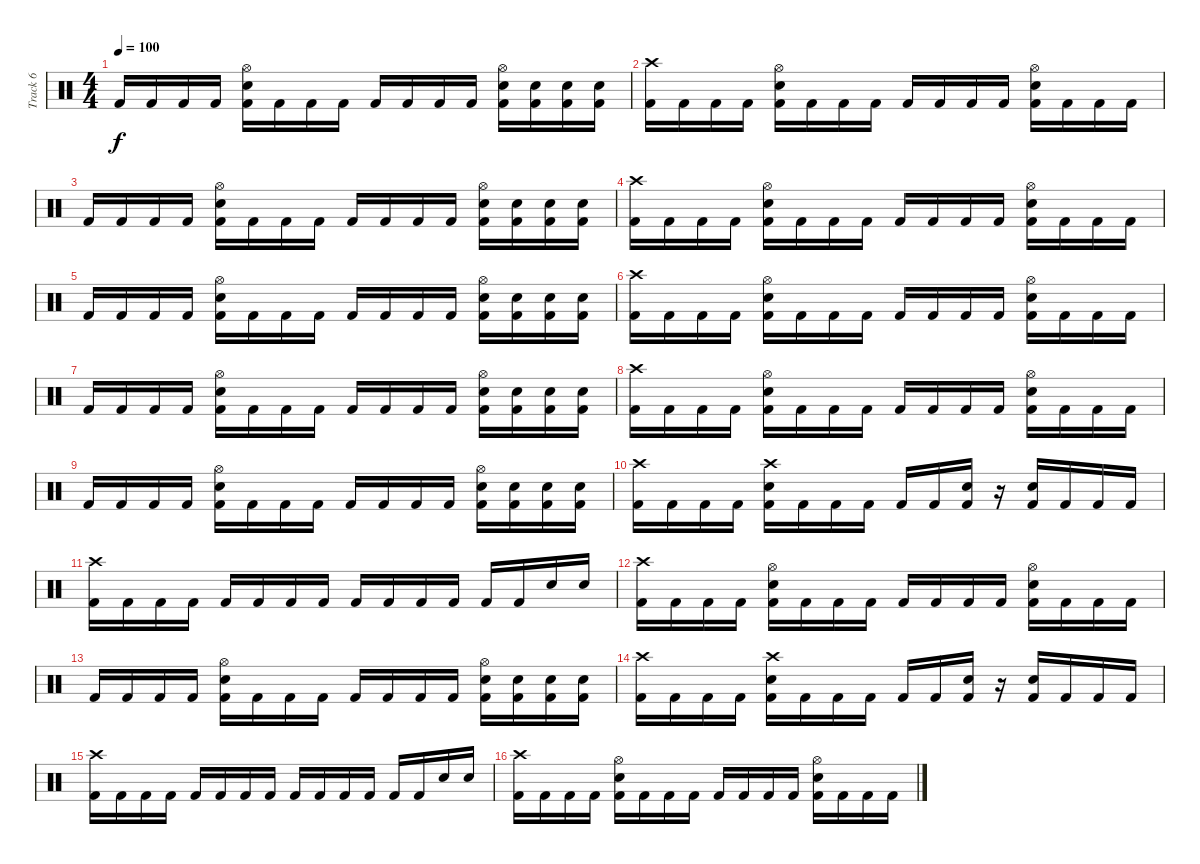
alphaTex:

\track ("Track 6" "Track 6") {instrument percussion}
\staff {score}
\articulation defaults
\ts (4 4)
\tempo 100
\clef neutral
\ks c "Kick (hit) 2".16{dy f} "Kick (hit) 2".16 "Kick (hit) 2".16 "Kick (hit) 2".16
("Kick (hit) 2" "Snare (hit) 2" "Hi-Hat (open)").16 "Kick (hit) 2".16 "Kick (hit) 2".16 "Kick (hit) 2".16 "Kick (hit) 2".16 "Kick (hit) 2".16 "Kick (hit) 2".16 "Kick (hit) 2".16 ("Kick (hit) 2" "Snare (hit) 2" "Hi-Hat (open)").16 ("Kick (hit) 2" "Snare (hit) 2").16 ("Kick (hit) 2" "Snare (hit) 2").16 ("Kick (hit) 2" "Snare (hit) 2").16 |
("Kick (hit) 2" "Crash high (hit)").16 "Kick (hit) 2".16 "Kick (hit) 2".16 "Kick (hit) 2".16 ("Kick (hit) 2" "Snare (hit) 2" "Hi-Hat (open)").16 "Kick (hit) 2".16 "Kick (hit) 2".16 "Kick (hit) 2".16 "Kick (hit) 2".16 "Kick (hit) 2".16 "Kick (hit) 2".16 "Kick (hit) 2".16 ("Kick (hit) 2" "Snare (hit) 2" "Hi-Hat (open)").16 "Kick (hit) 2".16 "Kick (hit) 2".16 "Kick (hit) 2".16 |
"Kick (hit) 2".16 "Kick (hit) 2".16 "Kick (hit) 2".16 "Kick (hit) 2".16 ("Kick (hit) 2" "Snare (hit) 2" "Hi-Hat (open)").16 "Kick (hit) 2".16 "Kick (hit) 2".16 "Kick (hit) 2".16 "Kick (hit) 2".16 "Kick (hit) 2".16 "Kick (hit) 2".16 "Kick (hit) 2".16 ("Kick (hit) 2" "Snare (hit) 2" "Hi-Hat (open)").16 ("Kick (hit) 2" "Snare (hit) 2").16 ("Kick (hit) 2" "Snare (hit) 2").16 ("Kick (hit) 2" "Snare (hit) 2").16 |
("Kick (hit) 2" "Crash high (hit)").16 "Kick (hit) 2".16 "Kick (hit) 2".16 "Kick (hit) 2".16 ("Kick (hit) 2" "Snare (hit) 2" "Hi-Hat (open)").16 "Kick (hit) 2".16 "Kick (hit) 2".16 "Kick (hit) 2".16 "Kick (hit) 2".16 "Kick (hit) 2".16 "Kick (hit) 2".16 "Kick (hit) 2".16 ("Kick (hit) 2" "Snare (hit) 2" "Hi-Hat (open)").16 "Kick (hit) 2".16 "Kick (hit) 2".16 "Kick (hit) 2".16 |
"Kick (hit) 2".16 "Kick (hit) 2".16 "Kick (hit) 2".16 "Kick (hit) 2".16 ("Kick (hit) 2" "Snare (hit) 2" "Hi-Hat (open)").16 "Kick (hit) 2".16 "Kick (hit) 2".16 "Kick (hit) 2".16 "Kick (hit) 2".16 "Kick (hit) 2".16 "Kick (hit) 2".16 "Kick (hit) 2".16 ("Kick (hit) 2" "Snare (hit) 2" "Hi-Hat (open)").16 ("Kick (hit) 2" "Snare (hit) 2").16 ("Kick (hit) 2" "Snare (hit) 2").16 ("Kick (hit) 2" "Snare (hit) 2").16 |
("Kick (hit) 2" "Crash high (hit)").16 "Kick (hit) 2".16 "Kick (hit) 2".16 "Kick (hit) 2".16 ("Kick (hit) 2" "Snare (hit) 2" "Hi-Hat (open)").16 "Kick (hit) 2".16 "Kick (hit) 2".16 "Kick (hit) 2".16 "Kick (hit) 2".16 "Kick (hit) 2".16 "Kick (hit) 2".16 "Kick (hit) 2".16 ("Kick (hit) 2" "Snare (hit) 2" "Hi-Hat (open)").16 "Kick (hit) 2".16 "Kick (hit) 2".16 "Kick (hit) 2".16 |
"Kick (hit) 2".16 "Kick (hit) 2".16 "Kick (hit) 2".16 "Kick (hit) 2".16 ("Kick (hit) 2" "Snare (hit) 2" "Hi-Hat (open)").16 "Kick (hit) 2".16 "Kick (hit) 2".16 "Kick (hit) 2".16 "Kick (hit) 2".16 "Kick (hit) 2".16 "Kick (hit) 2".16 "Kick (hit) 2".16 ("Kick (hit) 2" "Snare (hit) 2" "Hi-Hat (open)").16 ("Kick (hit) 2" "Snare (hit) 2").16 ("Kick (hit) 2" "Snare (hit) 2").16 ("Kick (hit) 2" "Snare (hit) 2").16 |
("Kick (hit) 2" "Crash high (hit)").16 "Kick (hit) 2".16 "Kick (hit) 2".16 "Kick (hit) 2".16 ("Kick (hit) 2" "Snare (hit) 2" "Hi-Hat (open)").16 "Kick (hit) 2".16 "Kick (hit) 2".16 "Kick (hit) 2".16 "Kick (hit) 2".16 "Kick (hit) 2".16 "Kick (hit) 2".16 "Kick (hit) 2".16 ("Kick (hit) 2" "Snare (hit) 2" "Hi-Hat (open)").16 "Kick (hit) 2".16 "Kick (hit) 2".16 "Kick (hit) 2".16 |
"Kick (hit) 2".16 "Kick (hit) 2".16 "Kick (hit) 2".16 "Kick (hit) 2".16 ("Kick (hit) 2" "Snare (hit) 2" "Hi-Hat (open)").16 "Kick (hit) 2".16 "Kick (hit) 2".16 "Kick (hit) 2".16 "Kick (hit) 2".16 "Kick (hit) 2".16 "Kick (hit) 2".16 "Kick (hit) 2".16 ("Kick (hit) 2" "Snare (hit) 2" "Hi-Hat (open)").16 ("Kick (hit) 2" "Snare (hit) 2").16 ("Kick (hit) 2" "Snare (hit) 2").16 ("Kick (hit) 2" "Snare (hit) 2").16 |
("Kick (hit) 2" "Crash high (hit)").16 "Kick (hit) 2".16 "Kick (hit) 2".16 "Kick (hit) 2".16 ("Kick (hit) 2" "Crash high (hit)" "Snare (hit) 2").16 "Kick (hit) 2".16 "Kick (hit) 2".16 "Kick (hit) 2".16 "Kick (hit) 2".16 "Kick (hit) 2".16 ("Snare (hit) 2" "Kick (hit) 2").16 r.16 ("Snare (hit) 2" "Kick (hit) 2").16 "Kick (hit) 2".16 "Kick (hit) 2".16 "Kick (hit) 2".16 |
("Crash high (hit)" "Kick (hit) 2").16 "Kick (hit) 2".16 "Kick (hit) 2".16 "Kick (hit) 2".16 "Kick (hit) 2".16 "Kick (hit) 2".16 "Kick (hit) 2".16 "Kick (hit) 2".16 "Kick (hit) 2".16 "Kick (hit) 2".16 "Kick (hit) 2".16 "Kick (hit) 2".16 "Kick (hit) 2".16 "Kick (hit) 2".16 "Snare (hit) 2".16 "Snare (hit) 2".16 |
("Kick (hit) 2" "Crash high (hit)").16 "Kick (hit) 2".16 "Kick (hit) 2".16 "Kick (hit) 2".16 ("Kick (hit) 2" "Snare (hit) 2" "Hi-Hat (open)").16 "Kick (hit) 2".16 "Kick (hit) 2".16 "Kick (hit) 2".16 "Kick (hit) 2".16 "Kick (hit) 2".16 "Kick (hit) 2".16 "Kick (hit) 2".16 ("Kick (hit) 2" "Snare (hit) 2" "Hi-Hat (open)").16 "Kick (hit) 2".16 "Kick (hit) 2".16 "Kick (hit) 2".16 |
"Kick (hit) 2".16 "Kick (hit) 2".16 "Kick (hit) 2".16 "Kick (hit) 2".16 ("Kick (hit) 2" "Snare (hit) 2" "Hi-Hat (open)").16 "Kick (hit) 2".16 "Kick (hit) 2".16 "Kick (hit) 2".16 "Kick (hit) 2".16 "Kick (hit) 2".16 "Kick (hit) 2".16 "Kick (hit) 2".16 ("Kick (hit) 2" "Snare (hit) 2" "Hi-Hat (open)").16 ("Kick (hit) 2" "Snare (hit) 2").16 ("Kick (hit) 2" "Snare (hit) 2").16 ("Kick (hit) 2" "Snare (hit) 2").16 |
("Kick (hit) 2" "Crash high (hit)").16 "Kick (hit) 2".16 "Kick (hit) 2".16 "Kick (hit) 2".16 ("Kick (hit) 2" "Crash high (hit)" "Snare (hit) 2").16 "Kick (hit) 2".16 "Kick (hit) 2".16 "Kick (hit) 2".16 "Kick (hit) 2".16 "Kick (hit) 2".16 ("Snare (hit) 2" "Kick (hit) 2").16 r.16 ("Snare (hit) 2" "Kick (hit) 2").16 "Kick (hit) 2".16 "Kick (hit) 2".16 "Kick (hit) 2".16 |
("Crash high (hit)" "Kick (hit) 2").16 "Kick (hit) 2".16 "Kick (hit) 2".16 "Kick (hit) 2".16 "Kick (hit) 2".16 "Kick (hit) 2".16 "Kick (hit) 2".16 "Kick (hit) 2".16 "Kick (hit) 2".16 "Kick (hit) 2".16 "Kick (hit) 2".16 "Kick (hit) 2".16 "Kick (hit) 2".16 "Kick (hit) 2".16 "Snare (hit) 2".16 "Snare (hit) 2".16 |
("Kick (hit) 2" "Crash high (hit)").16 "Kick (hit) 2".16 "Kick (hit) 2".16 "Kick (hit) 2".16 ("Kick (hit) 2" "Snare (hit) 2" "Hi-Hat (open)").16 "Kick (hit) 2".16 "Kick (hit) 2".16 "Kick (hit) 2".16 "Kick (hit) 2".16 "Kick (hit) 2".16 "Kick (hit) 2".16 "Kick (hit) 2".16 ("Kick (hit) 2" "Snare (hit) 2" "Hi-Hat (open)").16 "Kick (hit) 2".16 "Kick (hit) 2".16 "Kick (hit) 2".16
